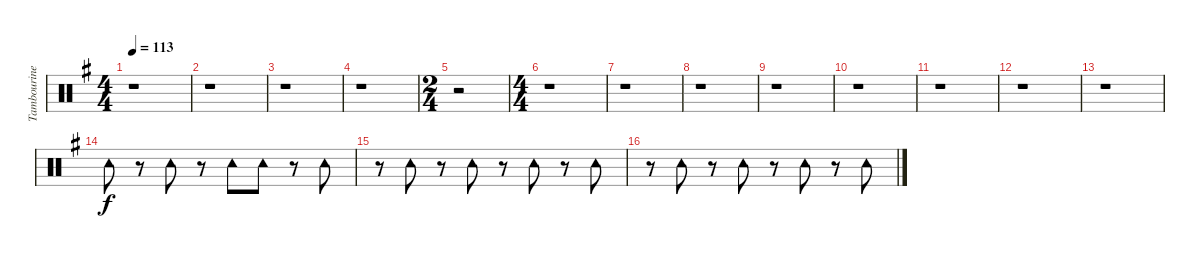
\track ("Tambourine" "Tambourine") {instrument percussion}
\staff {score}
\articulation defaults
\ts (4 4)
\tempo 113
\clef neutral
\ks eminor
r.1{dy f} |
r.1 |
r.1 |
r.1 |
\ts (2 4)
r.2 |
\ts (4 4)
r.1 |
r.1 |
r.1 |
r.1 |
r.1 |
r.1 |
r.1 |
r.1 |
"Tambourine (hit)".8 r.8 "Tambourine (hit)".8 r.8 "Tambourine (hit)".8 "Tambourine (hit)".8 r.8 "Tambourine (hit)".8 |
r.8 "Tambourine (hit)".8 r.8 "Tambourine (hit)".8 r.8 "Tambourine (hit)".8 r.8 "Tambourine (hit)".8 |
r.8 "Tambourine (hit)".8 r.8 "Tambourine (hit)".8 r.8 "Tambourine (hit)".8 r.8 "Tambourine (hit)".8
